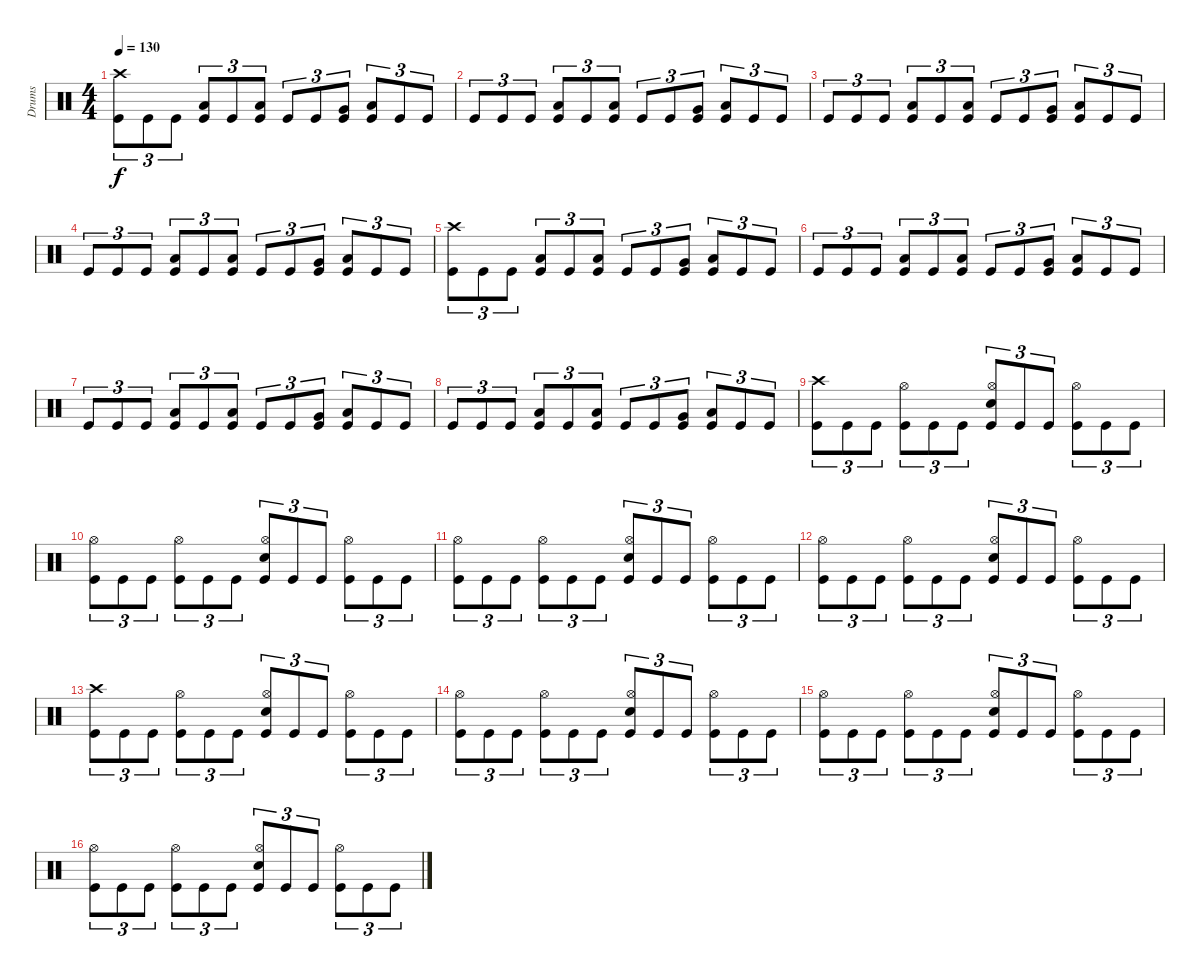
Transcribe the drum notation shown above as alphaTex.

\track ("Drums" "Drums") {instrument percussion}
\staff {score}
\articulation defaults
\ts (4 4)
\tempo 130
\clef neutral
\ks c
("Kick (hit)" "Crash high (hit)").8{tu (3 2) dy f} "Kick (hit)".8{tu (3 2)} "Kick (hit)".8{tu (3 2)} ("Kick (hit)" "Low Tom (hit)").8{tu (3 2)} "Kick (hit)".8{tu (3 2)} ("Kick (hit)" "Low Tom (hit)").8{tu (3 2)} "Kick (hit)".8{tu (3 2)} "Kick (hit)".8{tu (3 2)} ("Kick (hit)" "Very Low Tom (hit)").8{tu (3 2)} ("Kick (hit)" "Low Tom (hit)").8{tu (3 2)} "Kick (hit)".8{tu (3 2)} "Kick (hit)".8{tu (3 2)} |
"Kick (hit)".8{tu (3 2)} "Kick (hit)".8{tu (3 2)} "Kick (hit)".8{tu (3 2)} ("Kick (hit)" "Low Tom (hit)").8{tu (3 2)} "Kick (hit)".8{tu (3 2)} ("Kick (hit)" "Low Tom (hit)").8{tu (3 2)} "Kick (hit)".8{tu (3 2)} "Kick (hit)".8{tu (3 2)} ("Kick (hit)" "Very Low Tom (hit)").8{tu (3 2)} ("Kick (hit)" "Low Tom (hit)").8{tu (3 2)} "Kick (hit)".8{tu (3 2)} "Kick (hit)".8{tu (3 2)} |
"Kick (hit)".8{tu (3 2)} "Kick (hit)".8{tu (3 2)} "Kick (hit)".8{tu (3 2)} ("Kick (hit)" "Low Tom (hit)").8{tu (3 2)} "Kick (hit)".8{tu (3 2)} ("Kick (hit)" "Low Tom (hit)").8{tu (3 2)} "Kick (hit)".8{tu (3 2)} "Kick (hit)".8{tu (3 2)} ("Kick (hit)" "Very Low Tom (hit)").8{tu (3 2)} ("Kick (hit)" "Low Tom (hit)").8{tu (3 2)} "Kick (hit)".8{tu (3 2)} "Kick (hit)".8{tu (3 2)} |
"Kick (hit)".8{tu (3 2)} "Kick (hit)".8{tu (3 2)} "Kick (hit)".8{tu (3 2)} ("Kick (hit)" "Low Tom (hit)").8{tu (3 2)} "Kick (hit)".8{tu (3 2)} ("Kick (hit)" "Low Tom (hit)").8{tu (3 2)} "Kick (hit)".8{tu (3 2)} "Kick (hit)".8{tu (3 2)} ("Kick (hit)" "Very Low Tom (hit)").8{tu (3 2)} ("Kick (hit)" "Low Tom (hit)").8{tu (3 2)} "Kick (hit)".8{tu (3 2)} "Kick (hit)".8{tu (3 2)} |
("Kick (hit)" "Crash high (hit)").8{tu (3 2)} "Kick (hit)".8{tu (3 2)} "Kick (hit)".8{tu (3 2)} ("Kick (hit)" "Low Tom (hit)").8{tu (3 2)} "Kick (hit)".8{tu (3 2)} ("Kick (hit)" "Low Tom (hit)").8{tu (3 2)} "Kick (hit)".8{tu (3 2)} "Kick (hit)".8{tu (3 2)} ("Kick (hit)" "Very Low Tom (hit)").8{tu (3 2)} ("Kick (hit)" "Low Tom (hit)").8{tu (3 2)} "Kick (hit)".8{tu (3 2)} "Kick (hit)".8{tu (3 2)} |
"Kick (hit)".8{tu (3 2)} "Kick (hit)".8{tu (3 2)} "Kick (hit)".8{tu (3 2)} ("Kick (hit)" "Low Tom (hit)").8{tu (3 2)} "Kick (hit)".8{tu (3 2)} ("Kick (hit)" "Low Tom (hit)").8{tu (3 2)} "Kick (hit)".8{tu (3 2)} "Kick (hit)".8{tu (3 2)} ("Kick (hit)" "Very Low Tom (hit)").8{tu (3 2)} ("Kick (hit)" "Low Tom (hit)").8{tu (3 2)} "Kick (hit)".8{tu (3 2)} "Kick (hit)".8{tu (3 2)} |
"Kick (hit)".8{tu (3 2)} "Kick (hit)".8{tu (3 2)} "Kick (hit)".8{tu (3 2)} ("Kick (hit)" "Low Tom (hit)").8{tu (3 2)} "Kick (hit)".8{tu (3 2)} ("Kick (hit)" "Low Tom (hit)").8{tu (3 2)} "Kick (hit)".8{tu (3 2)} "Kick (hit)".8{tu (3 2)} ("Kick (hit)" "Very Low Tom (hit)").8{tu (3 2)} ("Kick (hit)" "Low Tom (hit)").8{tu (3 2)} "Kick (hit)".8{tu (3 2)} "Kick (hit)".8{tu (3 2)} |
"Kick (hit)".8{tu (3 2)} "Kick (hit)".8{tu (3 2)} "Kick (hit)".8{tu (3 2)} ("Kick (hit)" "Low Tom (hit)").8{tu (3 2)} "Kick (hit)".8{tu (3 2)} ("Kick (hit)" "Low Tom (hit)").8{tu (3 2)} "Kick (hit)".8{tu (3 2)} "Kick (hit)".8{tu (3 2)} ("Kick (hit)" "Very Low Tom (hit)").8{tu (3 2)} ("Kick (hit)" "Low Tom (hit)").8{tu (3 2)} "Kick (hit)".8{tu (3 2)} "Kick (hit)".8{tu (3 2)} |
("Kick (hit)" "Crash high (hit)").8{tu (3 2)} "Kick (hit)".8{tu (3 2)} "Kick (hit)".8{tu (3 2)} ("Kick (hit)" "Hi-Hat (open)").8{tu (3 2)} "Kick (hit)".8{tu (3 2)} "Kick (hit)".8{tu (3 2)} ("Kick (hit)" "Snare (hit) 2" "Hi-Hat (open)").8{tu (3 2)} "Kick (hit)".8{tu (3 2)} "Kick (hit)".8{tu (3 2)} ("Kick (hit)" "Hi-Hat (open)").8{tu (3 2)} "Kick (hit)".8{tu (3 2)} "Kick (hit)".8{tu (3 2)} |
("Kick (hit)" "Hi-Hat (open)").8{tu (3 2)} "Kick (hit)".8{tu (3 2)} "Kick (hit)".8{tu (3 2)} ("Kick (hit)" "Hi-Hat (open)").8{tu (3 2)} "Kick (hit)".8{tu (3 2)} "Kick (hit)".8{tu (3 2)} ("Kick (hit)" "Snare (hit) 2" "Hi-Hat (open)").8{tu (3 2)} "Kick (hit)".8{tu (3 2)} "Kick (hit)".8{tu (3 2)} ("Kick (hit)" "Hi-Hat (open)").8{tu (3 2)} "Kick (hit)".8{tu (3 2)} "Kick (hit)".8{tu (3 2)} |
("Kick (hit)" "Hi-Hat (open)").8{tu (3 2)} "Kick (hit)".8{tu (3 2)} "Kick (hit)".8{tu (3 2)} ("Kick (hit)" "Hi-Hat (open)").8{tu (3 2)} "Kick (hit)".8{tu (3 2)} "Kick (hit)".8{tu (3 2)} ("Kick (hit)" "Snare (hit) 2" "Hi-Hat (open)").8{tu (3 2)} "Kick (hit)".8{tu (3 2)} "Kick (hit)".8{tu (3 2)} ("Kick (hit)" "Hi-Hat (open)").8{tu (3 2)} "Kick (hit)".8{tu (3 2)} "Kick (hit)".8{tu (3 2)} |
("Kick (hit)" "Hi-Hat (open)").8{tu (3 2)} "Kick (hit)".8{tu (3 2)} "Kick (hit)".8{tu (3 2)} ("Kick (hit)" "Hi-Hat (open)").8{tu (3 2)} "Kick (hit)".8{tu (3 2)} "Kick (hit)".8{tu (3 2)} ("Kick (hit)" "Snare (hit) 2" "Hi-Hat (open)").8{tu (3 2)} "Kick (hit)".8{tu (3 2)} "Kick (hit)".8{tu (3 2)} ("Kick (hit)" "Hi-Hat (open)").8{tu (3 2)} "Kick (hit)".8{tu (3 2)} "Kick (hit)".8{tu (3 2)} |
("Kick (hit)" "Crash high (hit)").8{tu (3 2)} "Kick (hit)".8{tu (3 2)} "Kick (hit)".8{tu (3 2)} ("Kick (hit)" "Hi-Hat (open)").8{tu (3 2)} "Kick (hit)".8{tu (3 2)} "Kick (hit)".8{tu (3 2)} ("Kick (hit)" "Snare (hit) 2" "Hi-Hat (open)").8{tu (3 2)} "Kick (hit)".8{tu (3 2)} "Kick (hit)".8{tu (3 2)} ("Kick (hit)" "Hi-Hat (open)").8{tu (3 2)} "Kick (hit)".8{tu (3 2)} "Kick (hit)".8{tu (3 2)} |
("Kick (hit)" "Hi-Hat (open)").8{tu (3 2)} "Kick (hit)".8{tu (3 2)} "Kick (hit)".8{tu (3 2)} ("Kick (hit)" "Hi-Hat (open)").8{tu (3 2)} "Kick (hit)".8{tu (3 2)} "Kick (hit)".8{tu (3 2)} ("Kick (hit)" "Snare (hit) 2" "Hi-Hat (open)").8{tu (3 2)} "Kick (hit)".8{tu (3 2)} "Kick (hit)".8{tu (3 2)} ("Kick (hit)" "Hi-Hat (open)").8{tu (3 2)} "Kick (hit)".8{tu (3 2)} "Kick (hit)".8{tu (3 2)} |
("Kick (hit)" "Hi-Hat (open)").8{tu (3 2)} "Kick (hit)".8{tu (3 2)} "Kick (hit)".8{tu (3 2)} ("Kick (hit)" "Hi-Hat (open)").8{tu (3 2)} "Kick (hit)".8{tu (3 2)} "Kick (hit)".8{tu (3 2)} ("Kick (hit)" "Snare (hit) 2" "Hi-Hat (open)").8{tu (3 2)} "Kick (hit)".8{tu (3 2)} "Kick (hit)".8{tu (3 2)} ("Kick (hit)" "Hi-Hat (open)").8{tu (3 2)} "Kick (hit)".8{tu (3 2)} "Kick (hit)".8{tu (3 2)} |
("Kick (hit)" "Hi-Hat (open)").8{tu (3 2)} "Kick (hit)".8{tu (3 2)} "Kick (hit)".8{tu (3 2)} ("Kick (hit)" "Hi-Hat (open)").8{tu (3 2)} "Kick (hit)".8{tu (3 2)} "Kick (hit)".8{tu (3 2)} ("Kick (hit)" "Snare (hit) 2" "Hi-Hat (open)").8{tu (3 2)} "Kick (hit)".8{tu (3 2)} "Kick (hit)".8{tu (3 2)} ("Kick (hit)" "Hi-Hat (open)").8{tu (3 2)} "Kick (hit)".8{tu (3 2)} "Kick (hit)".8{tu (3 2)}
